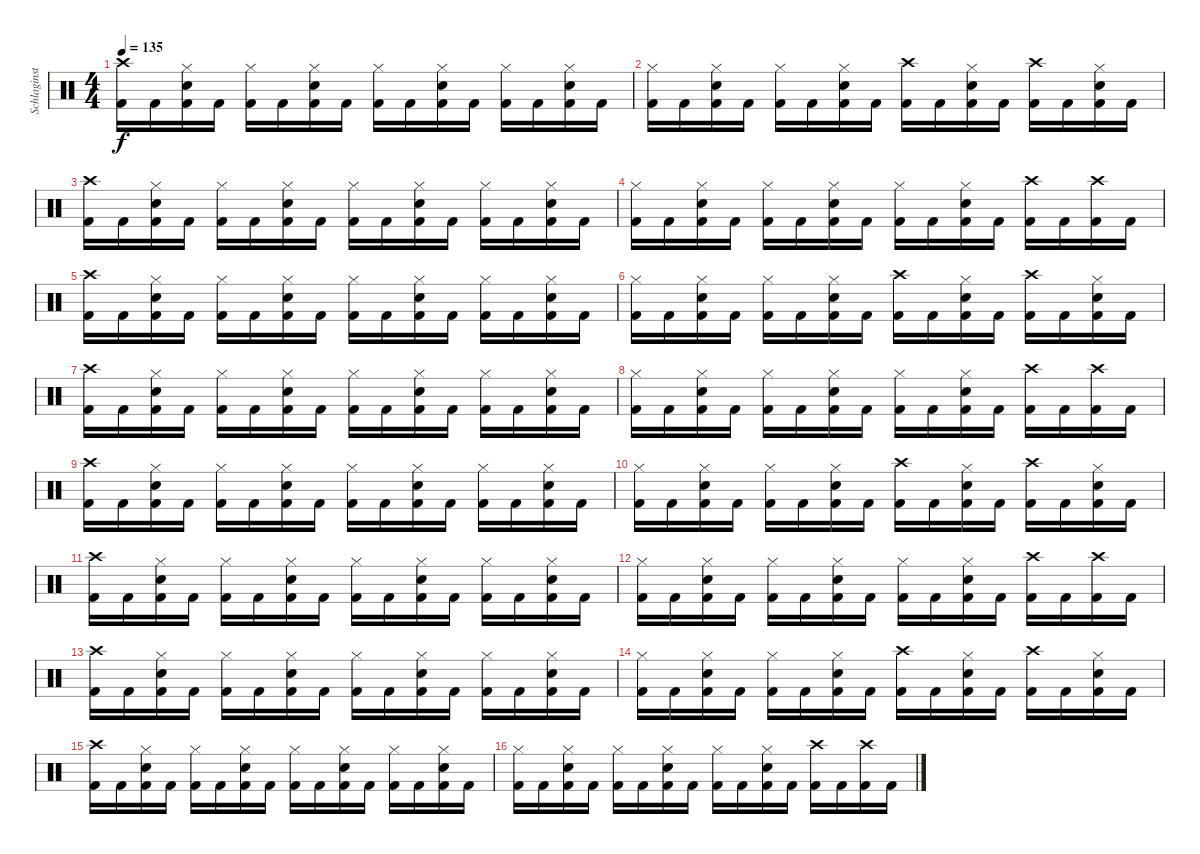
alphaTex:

\track ("Schlaginstrumente - Auswahl" "Schlaginst") {instrument percussion}
\staff {score}
\articulation defaults
\ts (4 4)
\tempo 135
\clef neutral
\ks c
("Crash high (hit)" "Kick (hit) 2").16{dy f} "Kick (hit) 2".16 ("Hi-Hat (closed)" "Snare (hit) 2" "Kick (hit) 2").16 "Kick (hit) 2".16 ("Hi-Hat (closed)" "Kick (hit) 2").16 "Kick (hit) 2".16 ("Hi-Hat (closed)" "Snare (hit) 2" "Kick (hit) 2").16 "Kick (hit) 2".16 ("Hi-Hat (closed)" "Kick (hit) 2").16 "Kick (hit) 2".16 ("Hi-Hat (closed)" "Snare (hit) 2" "Kick (hit) 2").16 "Kick (hit) 2".16 ("Hi-Hat (closed)" "Kick (hit) 2").16 "Kick (hit) 2".16 ("Hi-Hat (closed)" "Snare (hit) 2" "Kick (hit) 2").16 "Kick (hit) 2".16 |
("Hi-Hat (closed)" "Kick (hit) 2").16 "Kick (hit) 2".16 ("Hi-Hat (closed)" "Snare (hit) 2" "Kick (hit) 2").16 "Kick (hit) 2".16 ("Hi-Hat (closed)" "Kick (hit) 2").16 "Kick (hit) 2".16 ("Hi-Hat (closed)" "Snare (hit) 2" "Kick (hit) 2").16 "Kick (hit) 2".16 ("Crash high (hit)" "Kick (hit) 2").16 "Kick (hit) 2".16 ("Hi-Hat (closed)" "Snare (hit) 2" "Kick (hit) 2").16 "Kick (hit) 2".16 ("Crash high (hit)" "Kick (hit) 2").16 "Kick (hit) 2".16 ("Hi-Hat (closed)" "Snare (hit) 2" "Kick (hit) 2").16 "Kick (hit) 2".16 |
("Crash high (hit)" "Kick (hit) 2").16 "Kick (hit) 2".16 ("Hi-Hat (closed)" "Snare (hit) 2" "Kick (hit) 2").16 "Kick (hit) 2".16 ("Hi-Hat (closed)" "Kick (hit) 2").16 "Kick (hit) 2".16 ("Hi-Hat (closed)" "Snare (hit) 2" "Kick (hit) 2").16 "Kick (hit) 2".16 ("Hi-Hat (closed)" "Kick (hit) 2").16 "Kick (hit) 2".16 ("Hi-Hat (closed)" "Snare (hit) 2" "Kick (hit) 2").16 "Kick (hit) 2".16 ("Hi-Hat (closed)" "Kick (hit) 2").16 "Kick (hit) 2".16 ("Hi-Hat (closed)" "Snare (hit) 2" "Kick (hit) 2").16 "Kick (hit) 2".16 |
("Hi-Hat (closed)" "Kick (hit) 2").16 "Kick (hit) 2".16 ("Hi-Hat (closed)" "Snare (hit) 2" "Kick (hit) 2").16 "Kick (hit) 2".16 ("Hi-Hat (closed)" "Kick (hit) 2").16 "Kick (hit) 2".16 ("Hi-Hat (closed)" "Snare (hit) 2" "Kick (hit) 2").16 "Kick (hit) 2".16 ("Hi-Hat (closed)" "Kick (hit) 2").16 "Kick (hit) 2".16 ("Hi-Hat (closed)" "Snare (hit) 2" "Kick (hit) 2").16 "Kick (hit) 2".16 ("Crash high (hit)" "Kick (hit) 2").16 "Kick (hit) 2".16 ("Crash high (hit)" "Kick (hit) 2").16 "Kick (hit) 2".16 |
("Crash high (hit)" "Kick (hit) 2").16 "Kick (hit) 2".16 ("Hi-Hat (closed)" "Snare (hit) 2" "Kick (hit) 2").16 "Kick (hit) 2".16 ("Hi-Hat (closed)" "Kick (hit) 2").16 "Kick (hit) 2".16 ("Hi-Hat (closed)" "Snare (hit) 2" "Kick (hit) 2").16 "Kick (hit) 2".16 ("Hi-Hat (closed)" "Kick (hit) 2").16 "Kick (hit) 2".16 ("Hi-Hat (closed)" "Snare (hit) 2" "Kick (hit) 2").16 "Kick (hit) 2".16 ("Hi-Hat (closed)" "Kick (hit) 2").16 "Kick (hit) 2".16 ("Hi-Hat (closed)" "Snare (hit) 2" "Kick (hit) 2").16 "Kick (hit) 2".16 |
("Hi-Hat (closed)" "Kick (hit) 2").16 "Kick (hit) 2".16 ("Hi-Hat (closed)" "Snare (hit) 2" "Kick (hit) 2").16 "Kick (hit) 2".16 ("Hi-Hat (closed)" "Kick (hit) 2").16 "Kick (hit) 2".16 ("Hi-Hat (closed)" "Snare (hit) 2" "Kick (hit) 2").16 "Kick (hit) 2".16 ("Crash high (hit)" "Kick (hit) 2").16 "Kick (hit) 2".16 ("Hi-Hat (closed)" "Snare (hit) 2" "Kick (hit) 2").16 "Kick (hit) 2".16 ("Crash high (hit)" "Kick (hit) 2").16 "Kick (hit) 2".16 ("Hi-Hat (closed)" "Snare (hit) 2" "Kick (hit) 2").16 "Kick (hit) 2".16 |
("Crash high (hit)" "Kick (hit) 2").16 "Kick (hit) 2".16 ("Hi-Hat (closed)" "Snare (hit) 2" "Kick (hit) 2").16 "Kick (hit) 2".16 ("Hi-Hat (closed)" "Kick (hit) 2").16 "Kick (hit) 2".16 ("Hi-Hat (closed)" "Snare (hit) 2" "Kick (hit) 2").16 "Kick (hit) 2".16 ("Hi-Hat (closed)" "Kick (hit) 2").16 "Kick (hit) 2".16 ("Hi-Hat (closed)" "Snare (hit) 2" "Kick (hit) 2").16 "Kick (hit) 2".16 ("Hi-Hat (closed)" "Kick (hit) 2").16 "Kick (hit) 2".16 ("Hi-Hat (closed)" "Snare (hit) 2" "Kick (hit) 2").16 "Kick (hit) 2".16 |
("Hi-Hat (closed)" "Kick (hit) 2").16 "Kick (hit) 2".16 ("Hi-Hat (closed)" "Snare (hit) 2" "Kick (hit) 2").16 "Kick (hit) 2".16 ("Hi-Hat (closed)" "Kick (hit) 2").16 "Kick (hit) 2".16 ("Hi-Hat (closed)" "Snare (hit) 2" "Kick (hit) 2").16 "Kick (hit) 2".16 ("Hi-Hat (closed)" "Kick (hit) 2").16 "Kick (hit) 2".16 ("Hi-Hat (closed)" "Snare (hit) 2" "Kick (hit) 2").16 "Kick (hit) 2".16 ("Crash high (hit)" "Kick (hit) 2").16 "Kick (hit) 2".16 ("Crash high (hit)" "Kick (hit) 2").16 "Kick (hit) 2".16 |
("Crash high (hit)" "Kick (hit) 2").16 "Kick (hit) 2".16 ("Hi-Hat (closed)" "Snare (hit) 2" "Kick (hit) 2").16 "Kick (hit) 2".16 ("Hi-Hat (closed)" "Kick (hit) 2").16 "Kick (hit) 2".16 ("Hi-Hat (closed)" "Snare (hit) 2" "Kick (hit) 2").16 "Kick (hit) 2".16 ("Hi-Hat (closed)" "Kick (hit) 2").16 "Kick (hit) 2".16 ("Hi-Hat (closed)" "Snare (hit) 2" "Kick (hit) 2").16 "Kick (hit) 2".16 ("Hi-Hat (closed)" "Kick (hit) 2").16 "Kick (hit) 2".16 ("Hi-Hat (closed)" "Snare (hit) 2" "Kick (hit) 2").16 "Kick (hit) 2".16 |
("Hi-Hat (closed)" "Kick (hit) 2").16 "Kick (hit) 2".16 ("Hi-Hat (closed)" "Snare (hit) 2" "Kick (hit) 2").16 "Kick (hit) 2".16 ("Hi-Hat (closed)" "Kick (hit) 2").16 "Kick (hit) 2".16 ("Hi-Hat (closed)" "Snare (hit) 2" "Kick (hit) 2").16 "Kick (hit) 2".16 ("Crash high (hit)" "Kick (hit) 2").16 "Kick (hit) 2".16 ("Hi-Hat (closed)" "Snare (hit) 2" "Kick (hit) 2").16 "Kick (hit) 2".16 ("Crash high (hit)" "Kick (hit) 2").16 "Kick (hit) 2".16 ("Hi-Hat (closed)" "Snare (hit) 2" "Kick (hit) 2").16 "Kick (hit) 2".16 |
("Crash high (hit)" "Kick (hit) 2").16 "Kick (hit) 2".16 ("Hi-Hat (closed)" "Snare (hit) 2" "Kick (hit) 2").16 "Kick (hit) 2".16 ("Hi-Hat (closed)" "Kick (hit) 2").16 "Kick (hit) 2".16 ("Hi-Hat (closed)" "Snare (hit) 2" "Kick (hit) 2").16 "Kick (hit) 2".16 ("Hi-Hat (closed)" "Kick (hit) 2").16 "Kick (hit) 2".16 ("Hi-Hat (closed)" "Snare (hit) 2" "Kick (hit) 2").16 "Kick (hit) 2".16 ("Hi-Hat (closed)" "Kick (hit) 2").16 "Kick (hit) 2".16 ("Hi-Hat (closed)" "Snare (hit) 2" "Kick (hit) 2").16 "Kick (hit) 2".16 |
("Hi-Hat (closed)" "Kick (hit) 2").16 "Kick (hit) 2".16 ("Hi-Hat (closed)" "Snare (hit) 2" "Kick (hit) 2").16 "Kick (hit) 2".16 ("Hi-Hat (closed)" "Kick (hit) 2").16 "Kick (hit) 2".16 ("Hi-Hat (closed)" "Snare (hit) 2" "Kick (hit) 2").16 "Kick (hit) 2".16 ("Hi-Hat (closed)" "Kick (hit) 2").16 "Kick (hit) 2".16 ("Hi-Hat (closed)" "Snare (hit) 2" "Kick (hit) 2").16 "Kick (hit) 2".16 ("Crash high (hit)" "Kick (hit) 2").16 "Kick (hit) 2".16 ("Crash high (hit)" "Kick (hit) 2").16 "Kick (hit) 2".16 |
("Crash high (hit)" "Kick (hit) 2").16 "Kick (hit) 2".16 ("Hi-Hat (closed)" "Snare (hit) 2" "Kick (hit) 2").16 "Kick (hit) 2".16 ("Hi-Hat (closed)" "Kick (hit) 2").16 "Kick (hit) 2".16 ("Hi-Hat (closed)" "Snare (hit) 2" "Kick (hit) 2").16 "Kick (hit) 2".16 ("Hi-Hat (closed)" "Kick (hit) 2").16 "Kick (hit) 2".16 ("Hi-Hat (closed)" "Snare (hit) 2" "Kick (hit) 2").16 "Kick (hit) 2".16 ("Hi-Hat (closed)" "Kick (hit) 2").16 "Kick (hit) 2".16 ("Hi-Hat (closed)" "Snare (hit) 2" "Kick (hit) 2").16 "Kick (hit) 2".16 |
("Hi-Hat (closed)" "Kick (hit) 2").16 "Kick (hit) 2".16 ("Hi-Hat (closed)" "Snare (hit) 2" "Kick (hit) 2").16 "Kick (hit) 2".16 ("Hi-Hat (closed)" "Kick (hit) 2").16 "Kick (hit) 2".16 ("Hi-Hat (closed)" "Snare (hit) 2" "Kick (hit) 2").16 "Kick (hit) 2".16 ("Crash high (hit)" "Kick (hit) 2").16 "Kick (hit) 2".16 ("Hi-Hat (closed)" "Snare (hit) 2" "Kick (hit) 2").16 "Kick (hit) 2".16 ("Crash high (hit)" "Kick (hit) 2").16 "Kick (hit) 2".16 ("Hi-Hat (closed)" "Snare (hit) 2" "Kick (hit) 2").16 "Kick (hit) 2".16 |
("Crash high (hit)" "Kick (hit) 2").16 "Kick (hit) 2".16 ("Hi-Hat (closed)" "Snare (hit) 2" "Kick (hit) 2").16 "Kick (hit) 2".16 ("Hi-Hat (closed)" "Kick (hit) 2").16 "Kick (hit) 2".16 ("Hi-Hat (closed)" "Snare (hit) 2" "Kick (hit) 2").16 "Kick (hit) 2".16 ("Hi-Hat (closed)" "Kick (hit) 2").16 "Kick (hit) 2".16 ("Hi-Hat (closed)" "Snare (hit) 2" "Kick (hit) 2").16 "Kick (hit) 2".16 ("Hi-Hat (closed)" "Kick (hit) 2").16 "Kick (hit) 2".16 ("Hi-Hat (closed)" "Snare (hit) 2" "Kick (hit) 2").16 "Kick (hit) 2".16 |
("Hi-Hat (closed)" "Kick (hit) 2").16 "Kick (hit) 2".16 ("Hi-Hat (closed)" "Snare (hit) 2" "Kick (hit) 2").16 "Kick (hit) 2".16 ("Hi-Hat (closed)" "Kick (hit) 2").16 "Kick (hit) 2".16 ("Hi-Hat (closed)" "Snare (hit) 2" "Kick (hit) 2").16 "Kick (hit) 2".16 ("Hi-Hat (closed)" "Kick (hit) 2").16 "Kick (hit) 2".16 ("Hi-Hat (closed)" "Snare (hit) 2" "Kick (hit) 2").16 "Kick (hit) 2".16 ("Crash high (hit)" "Kick (hit) 2").16 "Kick (hit) 2".16 ("Crash high (hit)" "Kick (hit) 2").16 "Kick (hit) 2".16
